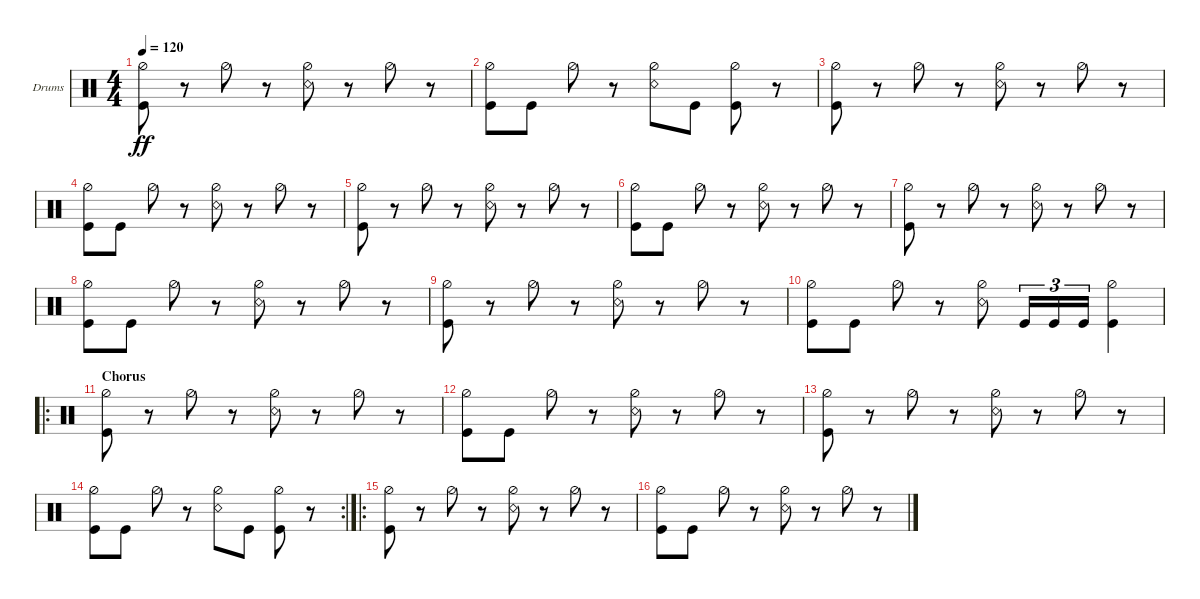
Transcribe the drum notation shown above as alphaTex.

\bracketExtendMode groupsimilarinstruments
\firstSystemTrackNameOrientation horizontal
\otherSystemsTrackNameOrientation horizontal
\track ("Drumkit" "Drums") {instrument percussion}
\staff {score}
\articulation defaults
\ts (4 4)
\tempo 120
\clef neutral
\ks c
("Hi-Hat (half)" "Kick (hit)").8{dy ff} r.8 "Hi-Hat (half)".8 r.8 ("Hi-Hat (half)" "Snare (rim shot)").8 r.8 "Hi-Hat (half)".8 r.8 |
("Hi-Hat (half)" "Kick (hit)").8 "Kick (hit)".8 "Hi-Hat (half)".8 r.8 ("Hi-Hat (half)" "Snare (rim shot)").8 "Kick (hit)".8 ("Hi-Hat (half)" "Kick (hit)").8 r.8 |
("Hi-Hat (half)" "Kick (hit)").8 r.8 "Hi-Hat (half)".8 r.8 ("Hi-Hat (half)" "Snare (rim shot)").8 r.8 "Hi-Hat (half)".8 r.8 |
("Hi-Hat (half)" "Kick (hit)").8 "Kick (hit)".8 "Hi-Hat (half)".8 r.8 ("Hi-Hat (half)" "Snare (rim shot)").8 r.8 "Hi-Hat (half)".8 r.8 |
("Hi-Hat (half)" "Kick (hit)").8 r.8 "Hi-Hat (half)".8 r.8 ("Hi-Hat (half)" "Snare (rim shot)").8 r.8 "Hi-Hat (half)".8 r.8 |
("Hi-Hat (half)" "Kick (hit)").8 "Kick (hit)".8 "Hi-Hat (half)".8 r.8 ("Hi-Hat (half)" "Snare (rim shot)").8 r.8 "Hi-Hat (half)".8 r.8 |
("Hi-Hat (half)" "Kick (hit)").8 r.8 "Hi-Hat (half)".8 r.8 ("Hi-Hat (half)" "Snare (rim shot)").8 r.8 "Hi-Hat (half)".8 r.8 |
("Hi-Hat (half)" "Kick (hit)").8 "Kick (hit)".8 "Hi-Hat (half)".8 r.8 ("Hi-Hat (half)" "Snare (rim shot)").8 r.8 "Hi-Hat (half)".8 r.8 |
("Hi-Hat (half)" "Kick (hit)").8 r.8 "Hi-Hat (half)".8 r.8 ("Hi-Hat (half)" "Snare (rim shot)").8 r.8 "Hi-Hat (half)".8 r.8 |
("Hi-Hat (half)" "Kick (hit)").8 "Kick (hit)".8 "Hi-Hat (half)".8 r.8 ("Hi-Hat (half)" "Snare (rim shot)").8 "Kick (hit)".16{tu (3 2)} "Kick (hit)".16{tu (3 2)} "Kick (hit)".16{tu (3 2)} ("Kick (hit)" "Hi-Hat (half)").4 |
\ro
\section ("" "Chorus")
("Hi-Hat (half)" "Kick (hit)").8 r.8 "Hi-Hat (half)".8 r.8 ("Hi-Hat (half)" "Snare (rim shot)").8 r.8 "Hi-Hat (half)".8 r.8 |
("Hi-Hat (half)" "Kick (hit)").8 "Kick (hit)".8 "Hi-Hat (half)".8 r.8 ("Hi-Hat (half)" "Snare (rim shot)").8 r.8 "Hi-Hat (half)".8 r.8 |
("Hi-Hat (half)" "Kick (hit)").8 r.8 "Hi-Hat (half)".8 r.8 ("Hi-Hat (half)" "Snare (rim shot)").8 r.8 "Hi-Hat (half)".8 r.8 |
\rc 2
("Hi-Hat (half)" "Kick (hit)").8 "Kick (hit)".8 "Hi-Hat (half)".8 r.8 ("Hi-Hat (half)" "Snare (rim shot)").8 "Kick (hit)".8 ("Hi-Hat (half)" "Kick (hit)").8 r.8 |
\ro
("Hi-Hat (half)" "Kick (hit)").8 r.8 "Hi-Hat (half)".8 r.8 ("Hi-Hat (half)" "Snare (rim shot)").8 r.8 "Hi-Hat (half)".8 r.8 |
("Hi-Hat (half)" "Kick (hit)").8 "Kick (hit)".8 "Hi-Hat (half)".8 r.8 ("Hi-Hat (half)" "Snare (rim shot)").8 r.8 "Hi-Hat (half)".8 r.8
